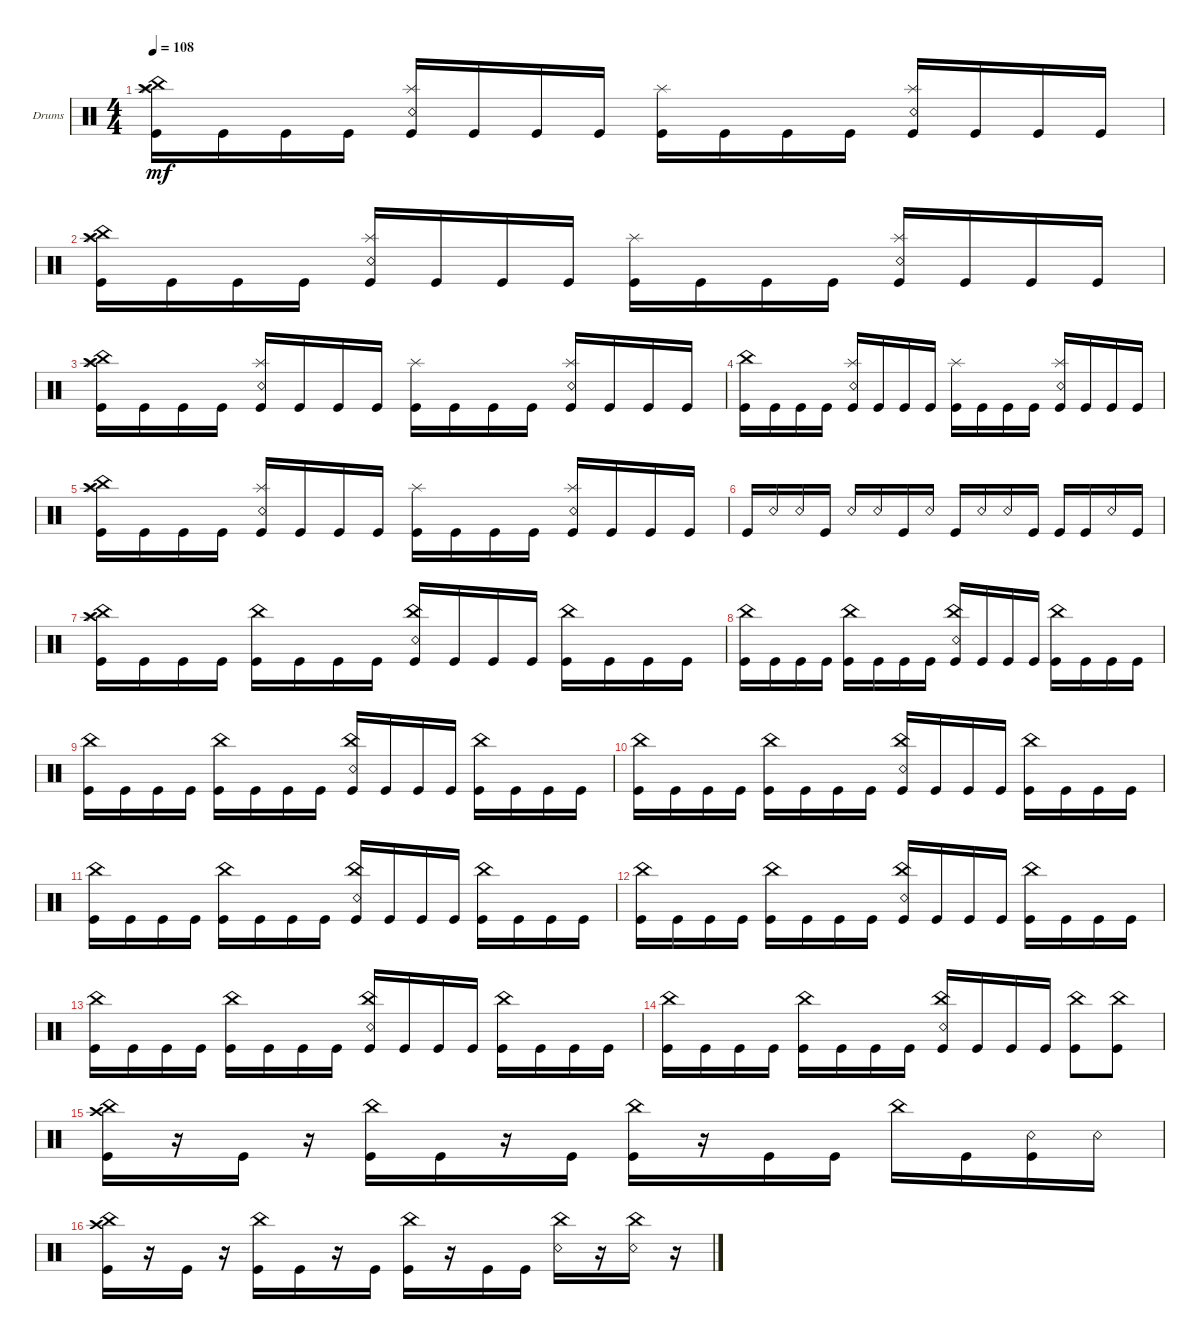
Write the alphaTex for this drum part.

\defaultSystemsLayout 4
\bracketExtendMode groupsimilarinstruments
\firstSystemTrackNameOrientation horizontal
\otherSystemsTrackNameOrientation horizontal
\track ("Drumkit" "Drums") {solo instrument percussion}
\staff {score}
\articulation defaults
\ts (4 4)
\tempo 108
\clef neutral
\ks c
("Kick (hit)" "China (hit)" "Splash (hit)" "Crash high (hit)").16{dy mf} "Kick (hit)".16 "Kick (hit)".16 "Kick (hit)".16 ("Kick (hit)" "Snare (rim shot)" "Splash (hit)").16 "Kick (hit)".16 "Kick (hit)".16 "Kick (hit)".16 ("Kick (hit)" "Splash (hit)").16 "Kick (hit)".16 "Kick (hit)".16 "Kick (hit)".16 ("Kick (hit)" "Snare (rim shot)" "Splash (hit)").16 "Kick (hit)".16 "Kick (hit)".16 "Kick (hit)".16 |
("Kick (hit)" "China (hit)" "Splash (hit)" "Crash high (hit)").16 "Kick (hit)".16 "Kick (hit)".16 "Kick (hit)".16 ("Kick (hit)" "Snare (rim shot)" "Splash (hit)").16 "Kick (hit)".16 "Kick (hit)".16 "Kick (hit)".16 ("Kick (hit)" "Splash (hit)").16 "Kick (hit)".16 "Kick (hit)".16 "Kick (hit)".16 ("Kick (hit)" "Snare (rim shot)" "Splash (hit)").16 "Kick (hit)".16 "Kick (hit)".16 "Kick (hit)".16 |
("Kick (hit)" "China (hit)" "Splash (hit)" "Crash high (hit)").16 "Kick (hit)".16 "Kick (hit)".16 "Kick (hit)".16 ("Kick (hit)" "Snare (rim shot)" "Splash (hit)").16 "Kick (hit)".16 "Kick (hit)".16 "Kick (hit)".16 ("Kick (hit)" "Splash (hit)").16 "Kick (hit)".16 "Kick (hit)".16 "Kick (hit)".16 ("Kick (hit)" "Snare (rim shot)" "Splash (hit)").16 "Kick (hit)".16 "Kick (hit)".16 "Kick (hit)".16 |
("Kick (hit)" "China (hit)").16 "Kick (hit)".16 "Kick (hit)".16 "Kick (hit)".16 ("Kick (hit)" "Snare (rim shot)" "Splash (hit)").16 "Kick (hit)".16 "Kick (hit)".16 "Kick (hit)".16 ("Kick (hit)" "Splash (hit)").16 "Kick (hit)".16 "Kick (hit)".16 "Kick (hit)".16 ("Kick (hit)" "Snare (rim shot)" "Splash (hit)").16 "Kick (hit)".16 "Kick (hit)".16 "Kick (hit)".16 |
("Kick (hit)" "China (hit)" "Splash (hit)" "Crash high (hit)").16 "Kick (hit)".16 "Kick (hit)".16 "Kick (hit)".16 ("Kick (hit)" "Snare (rim shot)" "Splash (hit)").16 "Kick (hit)".16 "Kick (hit)".16 "Kick (hit)".16 ("Kick (hit)" "Splash (hit)").16 "Kick (hit)".16 "Kick (hit)".16 "Kick (hit)".16 ("Kick (hit)" "Snare (rim shot)" "Splash (hit)").16 "Kick (hit)".16 "Kick (hit)".16 "Kick (hit)".16 |
"Kick (hit)".16 "Snare (rim shot)".16 "Snare (rim shot)".16 "Kick (hit)".16 "Snare (rim shot)".16 "Snare (rim shot)".16 "Kick (hit)".16 "Snare (rim shot)".16 "Kick (hit)".16 "Snare (rim shot)".16 "Snare (rim shot)".16 "Kick (hit)".16 "Kick (hit)".16 "Kick (hit)".16 "Snare (rim shot)".16 "Kick (hit)".16 |
("Kick (hit)" "Splash (hit)" "Crash high (hit)" "China (hit)").16 "Kick (hit)".16 "Kick (hit)".16 "Kick (hit)".16 ("Kick (hit)" "China (hit)").16 "Kick (hit)".16 "Kick (hit)".16 "Kick (hit)".16 ("Kick (hit)" "Snare (rim shot)" "China (hit)").16 "Kick (hit)".16 "Kick (hit)".16 "Kick (hit)".16 ("Kick (hit)" "China (hit)").16 "Kick (hit)".16 "Kick (hit)".16 "Kick (hit)".16 |
("Kick (hit)" "China (hit)").16 "Kick (hit)".16 "Kick (hit)".16 "Kick (hit)".16 ("Kick (hit)" "China (hit)").16 "Kick (hit)".16 "Kick (hit)".16 "Kick (hit)".16 ("Kick (hit)" "Snare (rim shot)" "China (hit)").16 "Kick (hit)".16 "Kick (hit)".16 "Kick (hit)".16 ("Kick (hit)" "China (hit)").16 "Kick (hit)".16 "Kick (hit)".16 "Kick (hit)".16 |
("Kick (hit)" "China (hit)").16 "Kick (hit)".16 "Kick (hit)".16 "Kick (hit)".16 ("Kick (hit)" "China (hit)").16 "Kick (hit)".16 "Kick (hit)".16 "Kick (hit)".16 ("Kick (hit)" "Snare (rim shot)" "China (hit)").16 "Kick (hit)".16 "Kick (hit)".16 "Kick (hit)".16 ("Kick (hit)" "China (hit)").16 "Kick (hit)".16 "Kick (hit)".16 "Kick (hit)".16 |
("Kick (hit)" "China (hit)").16 "Kick (hit)".16 "Kick (hit)".16 "Kick (hit)".16 ("Kick (hit)" "China (hit)").16 "Kick (hit)".16 "Kick (hit)".16 "Kick (hit)".16 ("Kick (hit)" "Snare (rim shot)" "China (hit)").16 "Kick (hit)".16 "Kick (hit)".16 "Kick (hit)".16 ("Kick (hit)" "China (hit)").16 "Kick (hit)".16 "Kick (hit)".16 "Kick (hit)".16 |
("Kick (hit)" "China (hit)").16 "Kick (hit)".16 "Kick (hit)".16 "Kick (hit)".16 ("Kick (hit)" "China (hit)").16 "Kick (hit)".16 "Kick (hit)".16 "Kick (hit)".16 ("Kick (hit)" "Snare (rim shot)" "China (hit)").16 "Kick (hit)".16 "Kick (hit)".16 "Kick (hit)".16 ("Kick (hit)" "China (hit)").16 "Kick (hit)".16 "Kick (hit)".16 "Kick (hit)".16 |
("Kick (hit)" "China (hit)").16 "Kick (hit)".16 "Kick (hit)".16 "Kick (hit)".16 ("Kick (hit)" "China (hit)").16 "Kick (hit)".16 "Kick (hit)".16 "Kick (hit)".16 ("Kick (hit)" "Snare (rim shot)" "China (hit)").16 "Kick (hit)".16 "Kick (hit)".16 "Kick (hit)".16 ("Kick (hit)" "China (hit)").16 "Kick (hit)".16 "Kick (hit)".16 "Kick (hit)".16 |
("Kick (hit)" "China (hit)").16 "Kick (hit)".16 "Kick (hit)".16 "Kick (hit)".16 ("Kick (hit)" "China (hit)").16 "Kick (hit)".16 "Kick (hit)".16 "Kick (hit)".16 ("Kick (hit)" "Snare (rim shot)" "China (hit)").16 "Kick (hit)".16 "Kick (hit)".16 "Kick (hit)".16 ("Kick (hit)" "China (hit)").16 "Kick (hit)".16 "Kick (hit)".16 "Kick (hit)".16 |
("Kick (hit)" "China (hit)").16 "Kick (hit)".16 "Kick (hit)".16 "Kick (hit)".16 ("Kick (hit)" "China (hit)").16 "Kick (hit)".16 "Kick (hit)".16 "Kick (hit)".16 ("Kick (hit)" "Snare (rim shot)" "China (hit)").16 "Kick (hit)".16 "Kick (hit)".16 "Kick (hit)".16 ("Kick (hit)" "China (hit)").8 ("Kick (hit)" "China (hit)").8 |
("Kick (hit)" "China (hit)" "Crash high (hit)").16 r.16 "Kick (hit)".16 r.16 ("Kick (hit)" "China (hit)").16 "Kick (hit)".16 r.16 "Kick (hit)".16 ("Kick (hit)" "China (hit)").16 r.16 "Kick (hit)".16 "Kick (hit)".16 "China (hit)".16 "Kick (hit)".16 ("Snare (rim shot)" "Kick (hit)").16 "Snare (rim shot)".16 |
("Kick (hit)" "China (hit)" "Crash high (hit)").16 r.16 "Kick (hit)".16 r.16 ("Kick (hit)" "China (hit)").16 "Kick (hit)".16 r.16 "Kick (hit)".16 ("Kick (hit)" "China (hit)").16 r.16 "Kick (hit)".16 "Kick (hit)".16 ("China (hit)" "Snare (rim shot)").16 r.16 ("Snare (rim shot)" "China (hit)").16 r.16
